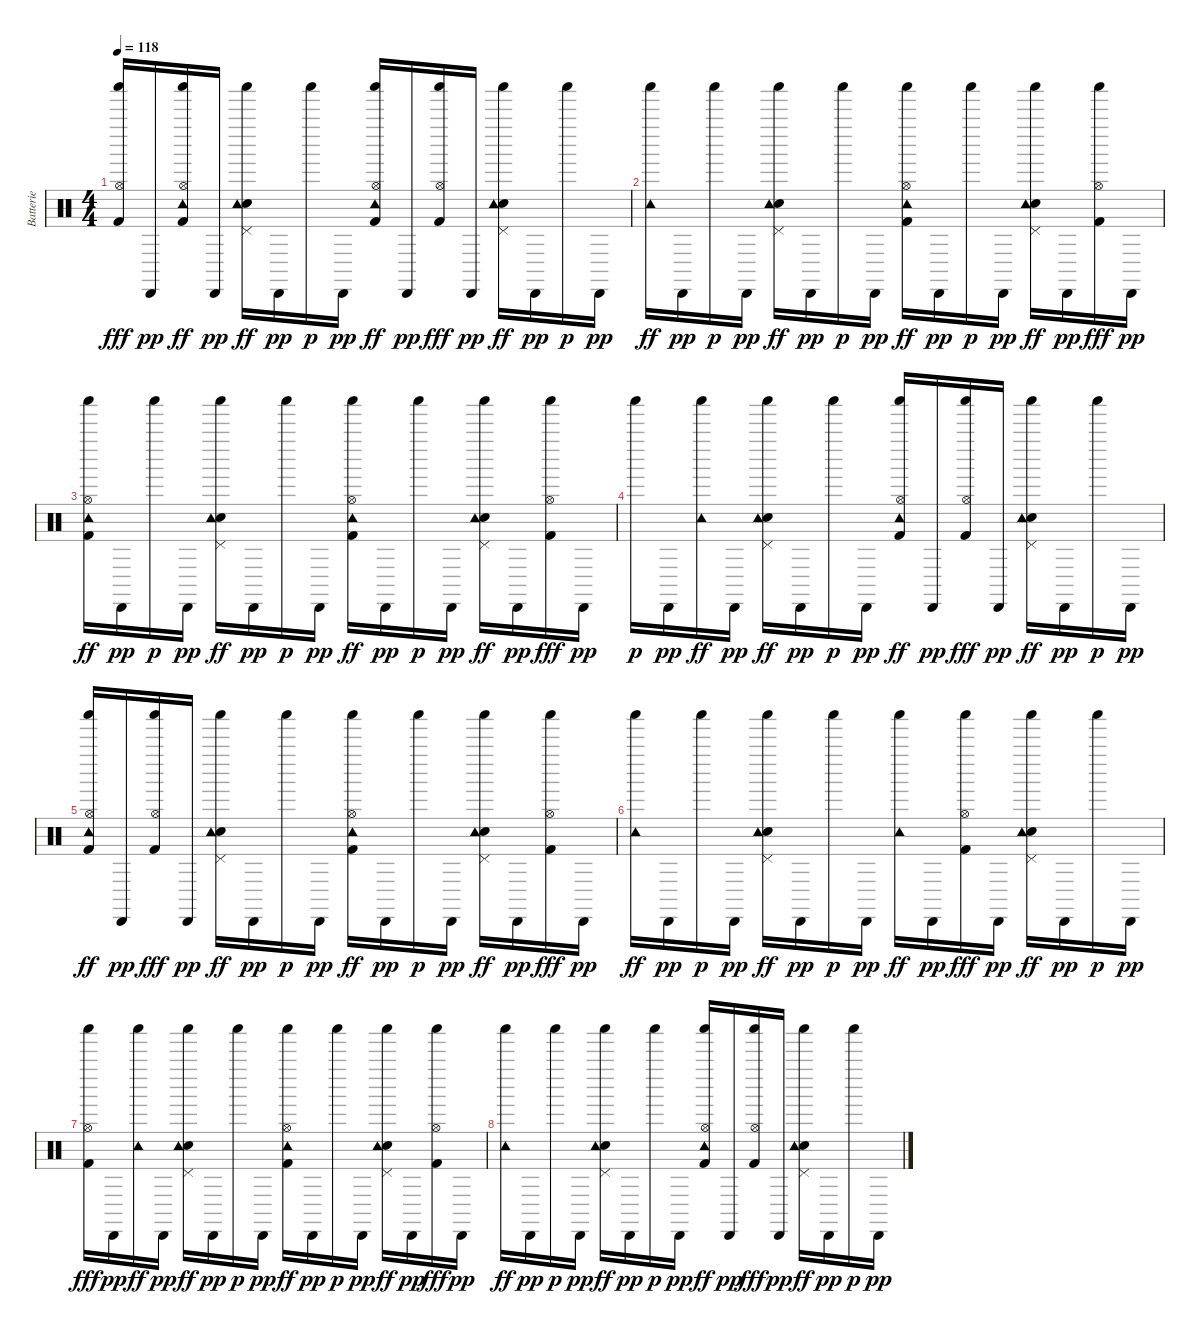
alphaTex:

\track ("Batterie" "Batterie") {instrument percussion}
\staff {score}
\articulation defaults
\ts (4 4)
\tempo 118
\clef neutral
\ks c
("Hi-Hat (open)" "Shaker (hit)" "Kick (hit) 2").16{dy fff} "Cabasa (hit)".16{dy pp} ("Hi-Hat (open)" "Shaker (hit)" "Kick (hit) 2" "Tambourine (hit)").16{dy ff} "Cabasa (hit)".16{dy pp} ("Pedal Hi-Hat (hit)" "Shaker (hit)" "Snare (hit) 2" "Tambourine (hit)").16{dy ff} "Cabasa (hit)".16{dy pp} "Shaker (hit)".16{dy p} "Cabasa (hit)".16{dy pp} ("Shaker (hit)" "Hi-Hat (open)" "Kick (hit) 2" "Tambourine (hit)").16{dy ff} "Cabasa (hit)".16{dy pp} ("Shaker (hit)" "Hi-Hat (open)" "Kick (hit) 2").16{dy fff} "Cabasa (hit)".16{dy pp} ("Pedal Hi-Hat (hit)" "Shaker (hit)" "Snare (hit) 2" "Tambourine (hit)").16{dy ff} "Cabasa (hit)".16{dy pp} "Shaker (hit)".16{dy p} "Cabasa (hit)".16{dy pp} |
("Shaker (hit)" "Tambourine (hit)").16{dy ff} "Cabasa (hit)".16{dy pp} "Shaker (hit)".16{dy p} "Cabasa (hit)".16{dy pp} ("Pedal Hi-Hat (hit)" "Shaker (hit)" "Snare (hit) 2" "Tambourine (hit)").16{dy ff} "Cabasa (hit)".16{dy pp} "Shaker (hit)".16{dy p} "Cabasa (hit)".16{dy pp} ("Hi-Hat (open)" "Shaker (hit)" "Kick (hit) 2" "Tambourine (hit)").16{dy ff} "Cabasa (hit)".16{dy pp} "Shaker (hit)".16{dy p} "Cabasa (hit)".16{dy pp} ("Pedal Hi-Hat (hit)" "Shaker (hit)" "Snare (hit) 2" "Tambourine (hit)").16{dy ff} "Cabasa (hit)".16{dy pp} ("Hi-Hat (open)" "Shaker (hit)" "Kick (hit) 2").16{dy fff} "Cabasa (hit)".16{dy pp} |
("Hi-Hat (open)" "Shaker (hit)" "Kick (hit) 2" "Tambourine (hit)").16{dy ff} "Cabasa (hit)".16{dy pp} "Shaker (hit)".16{dy p} "Cabasa (hit)".16{dy pp} ("Pedal Hi-Hat (hit)" "Shaker (hit)" "Snare (hit) 2" "Tambourine (hit)").16{dy ff} "Cabasa (hit)".16{dy pp} "Shaker (hit)".16{dy p} "Cabasa (hit)".16{dy pp} ("Hi-Hat (open)" "Shaker (hit)" "Kick (hit) 2" "Tambourine (hit)").16{dy ff} "Cabasa (hit)".16{dy pp} "Shaker (hit)".16{dy p} "Cabasa (hit)".16{dy pp} ("Pedal Hi-Hat (hit)" "Shaker (hit)" "Snare (hit) 2" "Tambourine (hit)").16{dy ff} "Cabasa (hit)".16{dy pp} ("Hi-Hat (open)" "Shaker (hit)" "Kick (hit) 2").16{dy fff} "Cabasa (hit)".16{dy pp} |
"Shaker (hit)".16{dy p} "Cabasa (hit)".16{dy pp} ("Shaker (hit)" "Tambourine (hit)").16{dy ff} "Cabasa (hit)".16{dy pp} ("Shaker (hit)" "Pedal Hi-Hat (hit)" "Snare (hit) 2" "Tambourine (hit)").16{dy ff} "Cabasa (hit)".16{dy pp} "Shaker (hit)".16{dy p} "Cabasa (hit)".16{dy pp} ("Hi-Hat (open)" "Shaker (hit)" "Kick (hit) 2" "Tambourine (hit)").16{dy ff} "Cabasa (hit)".16{dy pp} ("Hi-Hat (open)" "Shaker (hit)" "Kick (hit) 2").16{dy fff} "Cabasa (hit)".16{dy pp} ("Pedal Hi-Hat (hit)" "Shaker (hit)" "Snare (hit) 2" "Tambourine (hit)").16{dy ff} "Cabasa (hit)".16{dy pp} "Shaker (hit)".16{dy p} "Cabasa (hit)".16{dy pp} |
("Hi-Hat (open)" "Shaker (hit)" "Kick (hit) 2" "Tambourine (hit)").16{dy ff} "Cabasa (hit)".16{dy pp} ("Hi-Hat (open)" "Shaker (hit)" "Kick (hit) 2").16{dy fff} "Cabasa (hit)".16{dy pp} ("Pedal Hi-Hat (hit)" "Shaker (hit)" "Snare (hit) 2" "Tambourine (hit)").16{dy ff} "Cabasa (hit)".16{dy pp} "Shaker (hit)".16{dy p} "Cabasa (hit)".16{dy pp} ("Hi-Hat (open)" "Shaker (hit)" "Kick (hit) 2" "Tambourine (hit)").16{dy ff} "Cabasa (hit)".16{dy pp} "Shaker (hit)".16{dy p} "Cabasa (hit)".16{dy pp} ("Pedal Hi-Hat (hit)" "Shaker (hit)" "Snare (hit) 2" "Tambourine (hit)").16{dy ff} "Cabasa (hit)".16{dy pp} ("Shaker (hit)" "Hi-Hat (open)" "Kick (hit) 2").16{dy fff} "Cabasa (hit)".16{dy pp} |
("Shaker (hit)" "Tambourine (hit)").16{dy ff} "Cabasa (hit)".16{dy pp} "Shaker (hit)".16{dy p} "Cabasa (hit)".16{dy pp} ("Pedal Hi-Hat (hit)" "Shaker (hit)" "Snare (hit) 2" "Tambourine (hit)").16{dy ff} "Cabasa (hit)".16{dy pp} "Shaker (hit)".16{dy p} "Cabasa (hit)".16{dy pp} ("Shaker (hit)" "Tambourine (hit)").16{dy ff} "Cabasa (hit)".16{dy pp} ("Hi-Hat (open)" "Shaker (hit)" "Kick (hit) 2").16{dy fff} "Cabasa (hit)".16{dy pp} ("Pedal Hi-Hat (hit)" "Shaker (hit)" "Snare (hit) 2" "Tambourine (hit)").16{dy ff} "Cabasa (hit)".16{dy pp} "Shaker (hit)".16{dy p} "Cabasa (hit)".16{dy pp} |
("Hi-Hat (open)" "Shaker (hit)" "Kick (hit) 2").16{dy fff} "Cabasa (hit)".16{dy pp} ("Shaker (hit)" "Tambourine (hit)").16{dy ff} "Cabasa (hit)".16{dy pp} ("Pedal Hi-Hat (hit)" "Shaker (hit)" "Snare (hit) 2" "Tambourine (hit)").16{dy ff} "Cabasa (hit)".16{dy pp} "Shaker (hit)".16{dy p} "Cabasa (hit)".16{dy pp} ("Hi-Hat (open)" "Shaker (hit)" "Kick (hit) 2" "Tambourine (hit)").16{dy ff} "Cabasa (hit)".16{dy pp} "Shaker (hit)".16{dy p} "Cabasa (hit)".16{dy pp} ("Pedal Hi-Hat (hit)" "Shaker (hit)" "Snare (hit) 2" "Tambourine (hit)").16{dy ff} "Cabasa (hit)".16{dy pp} ("Hi-Hat (open)" "Shaker (hit)" "Kick (hit) 2").16{dy fff} "Cabasa (hit)".16{dy pp} |
("Shaker (hit)" "Tambourine (hit)").16{dy ff} "Cabasa (hit)".16{dy pp} "Shaker (hit)".16{dy p} "Cabasa (hit)".16{dy pp} ("Pedal Hi-Hat (hit)" "Shaker (hit)" "Snare (hit) 2" "Tambourine (hit)").16{dy ff} "Cabasa (hit)".16{dy pp} "Shaker (hit)".16{dy p} "Cabasa (hit)".16{dy pp} ("Hi-Hat (open)" "Shaker (hit)" "Kick (hit) 2" "Tambourine (hit)").16{dy ff} "Cabasa (hit)".16{dy pp} ("Hi-Hat (open)" "Shaker (hit)" "Kick (hit) 2").16{dy fff} "Cabasa (hit)".16{dy pp} ("Pedal Hi-Hat (hit)" "Shaker (hit)" "Snare (hit) 2" "Tambourine (hit)").16{dy ff} "Cabasa (hit)".16{dy pp} "Shaker (hit)".16{dy p} "Cabasa (hit)".16{dy pp}
